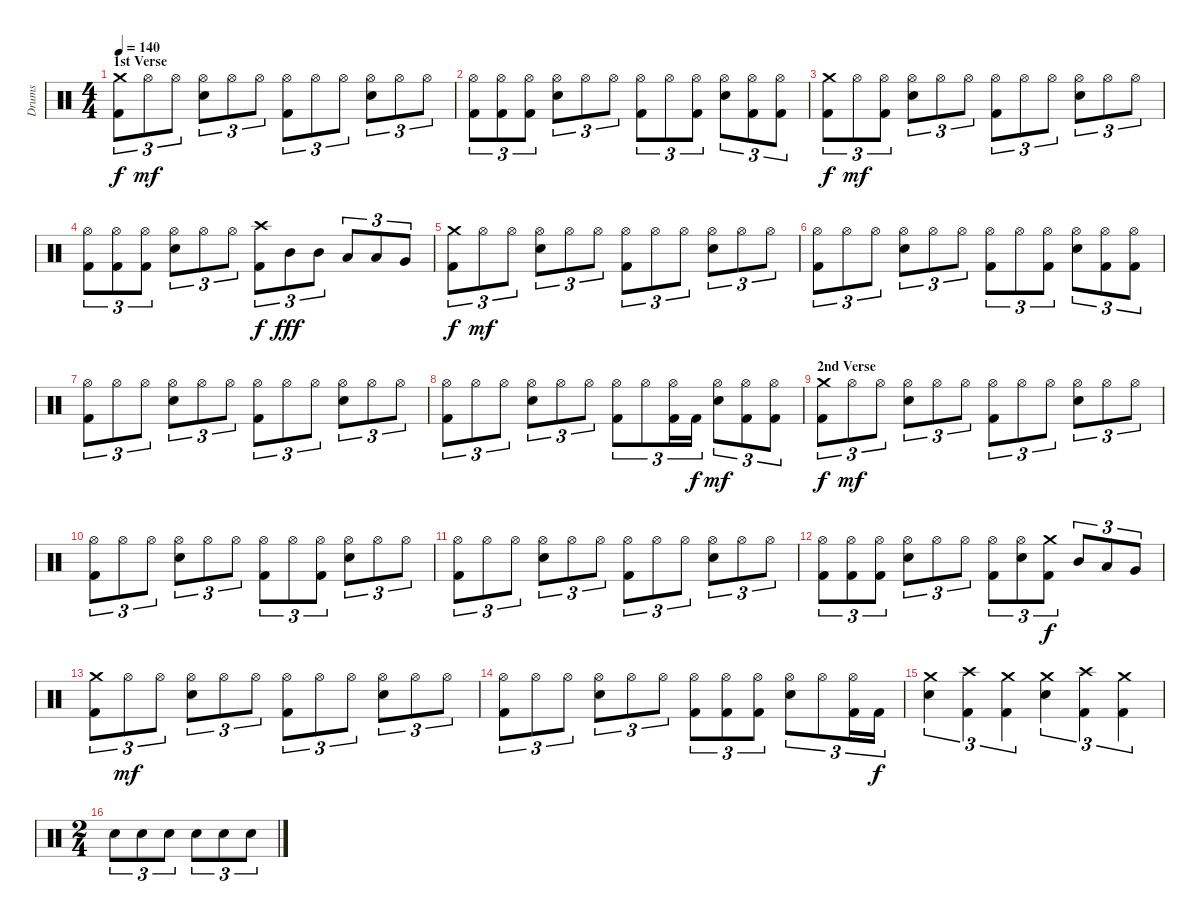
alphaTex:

\track ("Drums" "Drums") {instrument percussion}
\staff {score}
\articulation defaults
\ts (4 4)
\section ("" "1st Verse")
\tempo 140
\clef neutral
\ks c
("Kick (hit) 2" "Crash medium (hit)").8{tu (3 2) dy f} "Hi-Hat (open)".8{tu (3 2) dy mf} "Hi-Hat (open)".8{tu (3 2)} ("Electric Snare (hit)" "Hi-Hat (open)").8{tu (3 2)} "Hi-Hat (open)".8{tu (3 2)} "Hi-Hat (open)".8{tu (3 2)} ("Kick (hit) 2" "Hi-Hat (open)").8{tu (3 2)} "Hi-Hat (open)".8{tu (3 2)} "Hi-Hat (open)".8{tu (3 2)} ("Electric Snare (hit)" "Hi-Hat (open)").8{tu (3 2)} "Hi-Hat (open)".8{tu (3 2)} "Hi-Hat (open)".8{tu (3 2)} |
("Kick (hit) 2" "Hi-Hat (open)").8{tu (3 2)} ("Kick (hit) 2" "Hi-Hat (open)").8{tu (3 2)} ("Kick (hit) 2" "Hi-Hat (open)").8{tu (3 2)} ("Electric Snare (hit)" "Hi-Hat (open)").8{tu (3 2)} "Hi-Hat (open)".8{tu (3 2)} "Hi-Hat (open)".8{tu (3 2)} ("Kick (hit) 2" "Hi-Hat (open)").8{tu (3 2)} "Hi-Hat (open)".8{tu (3 2)} ("Kick (hit) 2" "Hi-Hat (open)").8{tu (3 2)} ("Electric Snare (hit)" "Hi-Hat (open)").8{tu (3 2)} ("Kick (hit) 2" "Hi-Hat (open)").8{tu (3 2)} ("Kick (hit) 2" "Hi-Hat (open)").8{tu (3 2)} |
("Kick (hit) 2" "Crash medium (hit)").8{tu (3 2) dy f} "Hi-Hat (open)".8{tu (3 2) dy mf} ("Kick (hit) 2" "Hi-Hat (open)").8{tu (3 2)} ("Electric Snare (hit)" "Hi-Hat (open)").8{tu (3 2)} "Hi-Hat (open)".8{tu (3 2)} "Hi-Hat (open)".8{tu (3 2)} ("Kick (hit) 2" "Hi-Hat (open)").8{tu (3 2)} "Hi-Hat (open)".8{tu (3 2)} "Hi-Hat (open)".8{tu (3 2)} ("Electric Snare (hit)" "Hi-Hat (open)").8{tu (3 2)} "Hi-Hat (open)".8{tu (3 2)} "Hi-Hat (open)".8{tu (3 2)} |
("Kick (hit) 2" "Hi-Hat (open)").8{tu (3 2)} ("Kick (hit) 2" "Hi-Hat (open)").8{tu (3 2)} ("Kick (hit) 2" "Hi-Hat (open)").8{tu (3 2)} ("Electric Snare (hit)" "Hi-Hat (open)").8{tu (3 2)} "Hi-Hat (open)".8{tu (3 2)} "Hi-Hat (open)".8{tu (3 2)} ("Kick (hit) 2" "Crash high (hit)").8{tu (3 2) dy f} "Mid Tom (hit)".8{tu (3 2) dy fff} "Mid Tom (hit)".8{tu (3 2)} "Low Tom (hit)".8{tu (3 2)} "Low Tom (hit)".8{tu (3 2)} "Very Low Tom (hit)".8{tu (3 2)} |
("Kick (hit) 2" "Crash medium (hit)").8{tu (3 2) dy f} "Hi-Hat (open)".8{tu (3 2) dy mf} "Hi-Hat (open)".8{tu (3 2)} ("Electric Snare (hit)" "Hi-Hat (open)").8{tu (3 2)} "Hi-Hat (open)".8{tu (3 2)} "Hi-Hat (open)".8{tu (3 2)} ("Kick (hit) 2" "Hi-Hat (open)").8{tu (3 2)} "Hi-Hat (open)".8{tu (3 2)} "Hi-Hat (open)".8{tu (3 2)} ("Electric Snare (hit)" "Hi-Hat (open)").8{tu (3 2)} "Hi-Hat (open)".8{tu (3 2)} "Hi-Hat (open)".8{tu (3 2)} |
("Kick (hit) 2" "Hi-Hat (open)").8{tu (3 2)} "Hi-Hat (open)".8{tu (3 2)} "Hi-Hat (open)".8{tu (3 2)} ("Electric Snare (hit)" "Hi-Hat (open)").8{tu (3 2)} "Hi-Hat (open)".8{tu (3 2)} "Hi-Hat (open)".8{tu (3 2)} ("Kick (hit) 2" "Hi-Hat (open)").8{tu (3 2)} "Hi-Hat (open)".8{tu (3 2)} ("Kick (hit) 2" "Hi-Hat (open)").8{tu (3 2)} ("Electric Snare (hit)" "Hi-Hat (open)").8{tu (3 2)} ("Kick (hit) 2" "Hi-Hat (open)").8{tu (3 2)} ("Kick (hit) 2" "Hi-Hat (open)").8{tu (3 2)} |
("Kick (hit) 2" "Hi-Hat (open)").8{tu (3 2)} "Hi-Hat (open)".8{tu (3 2)} "Hi-Hat (open)".8{tu (3 2)} ("Electric Snare (hit)" "Hi-Hat (open)").8{tu (3 2)} "Hi-Hat (open)".8{tu (3 2)} "Hi-Hat (open)".8{tu (3 2)} ("Kick (hit) 2" "Hi-Hat (open)").8{tu (3 2)} "Hi-Hat (open)".8{tu (3 2)} "Hi-Hat (open)".8{tu (3 2)} ("Electric Snare (hit)" "Hi-Hat (open)").8{tu (3 2)} "Hi-Hat (open)".8{tu (3 2)} "Hi-Hat (open)".8{tu (3 2)} |
("Kick (hit) 2" "Hi-Hat (open)").8{tu (3 2)} "Hi-Hat (open)".8{tu (3 2)} "Hi-Hat (open)".8{tu (3 2)} ("Electric Snare (hit)" "Hi-Hat (open)").8{tu (3 2)} "Hi-Hat (open)".8{tu (3 2)} "Hi-Hat (open)".8{tu (3 2)} ("Kick (hit) 2" "Hi-Hat (open)").8{tu (3 2)} "Hi-Hat (open)".8{tu (3 2)} ("Kick (hit) 2" "Hi-Hat (open)").16{tu (3 2)} "Kick (hit) 2".16{tu (3 2) dy f} ("Electric Snare (hit)" "Hi-Hat (open)").8{tu (3 2) dy mf} ("Kick (hit) 2" "Hi-Hat (open)").8{tu (3 2)} ("Kick (hit) 2" "Hi-Hat (open)").8{tu (3 2)} |
\section ("" "2nd Verse")
("Kick (hit) 2" "Crash medium (hit)").8{tu (3 2) dy f} "Hi-Hat (open)".8{tu (3 2) dy mf} "Hi-Hat (open)".8{tu (3 2)} ("Electric Snare (hit)" "Hi-Hat (open)").8{tu (3 2)} "Hi-Hat (open)".8{tu (3 2)} "Hi-Hat (open)".8{tu (3 2)} ("Kick (hit) 2" "Hi-Hat (open)").8{tu (3 2)} "Hi-Hat (open)".8{tu (3 2)} "Hi-Hat (open)".8{tu (3 2)} ("Electric Snare (hit)" "Hi-Hat (open)").8{tu (3 2)} "Hi-Hat (open)".8{tu (3 2)} "Hi-Hat (open)".8{tu (3 2)} |
("Kick (hit) 2" "Hi-Hat (open)").8{tu (3 2)} "Hi-Hat (open)".8{tu (3 2)} "Hi-Hat (open)".8{tu (3 2)} ("Electric Snare (hit)" "Hi-Hat (open)").8{tu (3 2)} "Hi-Hat (open)".8{tu (3 2)} "Hi-Hat (open)".8{tu (3 2)} ("Kick (hit) 2" "Hi-Hat (open)").8{tu (3 2)} "Hi-Hat (open)".8{tu (3 2)} ("Kick (hit) 2" "Hi-Hat (open)").8{tu (3 2)} ("Electric Snare (hit)" "Hi-Hat (open)").8{tu (3 2)} "Hi-Hat (open)".8{tu (3 2)} "Hi-Hat (open)".8{tu (3 2)} |
("Kick (hit) 2" "Hi-Hat (open)").8{tu (3 2)} "Hi-Hat (open)".8{tu (3 2)} "Hi-Hat (open)".8{tu (3 2)} ("Electric Snare (hit)" "Hi-Hat (open)").8{tu (3 2)} "Hi-Hat (open)".8{tu (3 2)} "Hi-Hat (open)".8{tu (3 2)} ("Kick (hit) 2" "Hi-Hat (open)").8{tu (3 2)} "Hi-Hat (open)".8{tu (3 2)} "Hi-Hat (open)".8{tu (3 2)} ("Electric Snare (hit)" "Hi-Hat (open)").8{tu (3 2)} "Hi-Hat (open)".8{tu (3 2)} "Hi-Hat (open)".8{tu (3 2)} |
("Kick (hit) 2" "Hi-Hat (open)").8{tu (3 2)} ("Kick (hit) 2" "Hi-Hat (open)").8{tu (3 2)} ("Kick (hit) 2" "Hi-Hat (open)").8{tu (3 2)} ("Electric Snare (hit)" "Hi-Hat (open)").8{tu (3 2)} "Hi-Hat (open)".8{tu (3 2)} "Hi-Hat (open)".8{tu (3 2)} ("Kick (hit) 2" "Hi-Hat (open)").8{tu (3 2)} ("Electric Snare (hit)" "Hi-Hat (open)").8{tu (3 2)} ("Kick (hit) 2" "Crash medium (hit)").8{tu (3 2) dy f} "Mid Tom (hit)".8{tu (3 2)} "Low Tom (hit)".8{tu (3 2)} "Very Low Tom (hit)".8{tu (3 2)} |
("Kick (hit) 2" "Crash medium (hit)").8{tu (3 2)} "Hi-Hat (open)".8{tu (3 2) dy mf} "Hi-Hat (open)".8{tu (3 2)} ("Electric Snare (hit)" "Hi-Hat (open)").8{tu (3 2)} "Hi-Hat (open)".8{tu (3 2)} "Hi-Hat (open)".8{tu (3 2)} ("Kick (hit) 2" "Hi-Hat (open)").8{tu (3 2)} "Hi-Hat (open)".8{tu (3 2)} "Hi-Hat (open)".8{tu (3 2)} ("Electric Snare (hit)" "Hi-Hat (open)").8{tu (3 2)} "Hi-Hat (open)".8{tu (3 2)} "Hi-Hat (open)".8{tu (3 2)} |
("Kick (hit) 2" "Hi-Hat (open)").8{tu (3 2)} "Hi-Hat (open)".8{tu (3 2)} "Hi-Hat (open)".8{tu (3 2)} ("Electric Snare (hit)" "Hi-Hat (open)").8{tu (3 2)} "Hi-Hat (open)".8{tu (3 2)} "Hi-Hat (open)".8{tu (3 2)} ("Kick (hit) 2" "Hi-Hat (open)").8{tu (3 2)} ("Kick (hit) 2" "Hi-Hat (open)").8{tu (3 2)} ("Kick (hit) 2" "Hi-Hat (open)").8{tu (3 2)} ("Electric Snare (hit)" "Hi-Hat (open)").8{tu (3 2)} "Hi-Hat (open)".8{tu (3 2)} ("Kick (hit) 2" "Hi-Hat (open)").16{tu (3 2)} "Kick (hit) 2".16{tu (3 2) dy f} |
("Electric Snare (hit)" "Crash medium (hit)").4{tu (3 2)} ("Kick (hit) 2" "Crash high (hit)").4{tu (3 2)} ("Kick (hit) 2" "Crash medium (hit)").4{tu (3 2)} ("Electric Snare (hit)" "Crash medium (hit)").4{tu (3 2)} ("Kick (hit) 2" "Crash high (hit)").4{tu (3 2)} ("Kick (hit) 2" "Crash medium (hit)").4{tu (3 2)} |
\ts (2 4)
"Electric Snare (hit)".8{tu (3 2)} "Electric Snare (hit)".8{tu (3 2)} "Electric Snare (hit)".8{tu (3 2)} "Electric Snare (hit)".8{tu (3 2)} "Electric Snare (hit)".8{tu (3 2)} "Electric Snare (hit)".8{tu (3 2)}
